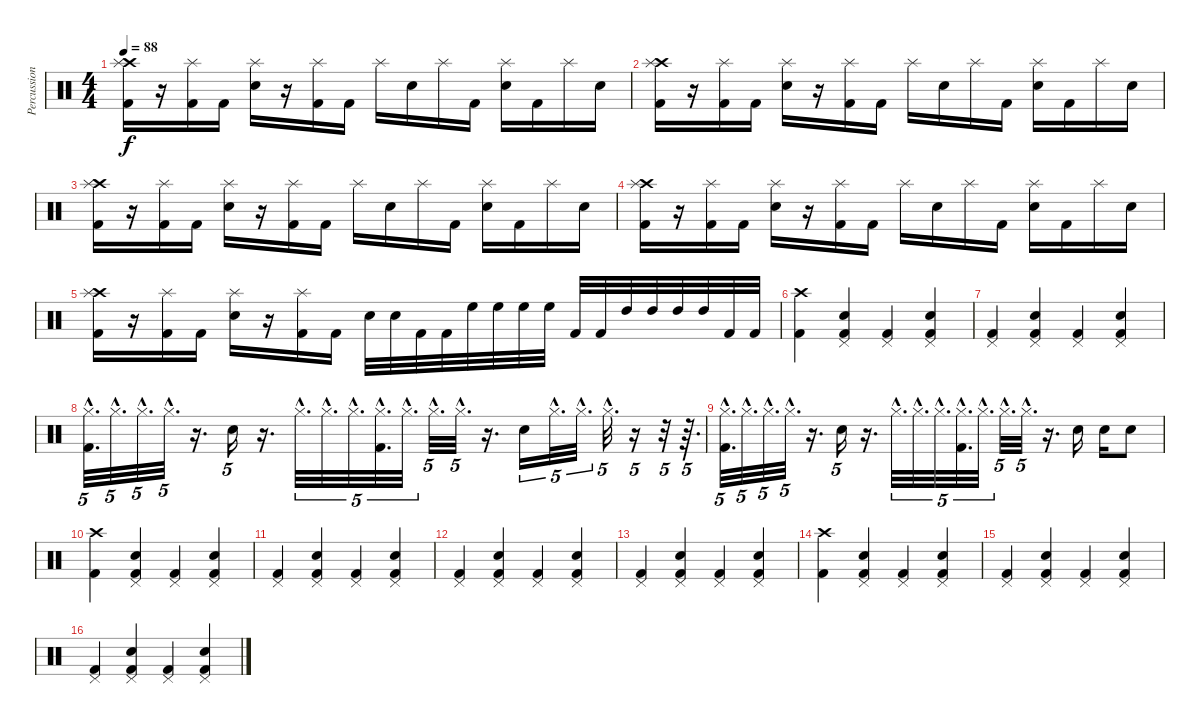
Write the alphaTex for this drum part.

\track ("Percussion" "Percussion") {instrument percussion}
\staff {score}
\articulation defaults
\ts (4 4)
\tempo 88
\clef neutral
\ks c
("Crash high (hit)" "Splash (hit)" "Kick (hit) 2").16{dy f} r.16 ("Splash (hit)" "Kick (hit) 2").16 "Kick (hit) 2".16 ("Splash (hit)" "Electric Snare (hit)").16 r.16 ("Splash (hit)" "Kick (hit) 2").16 "Kick (hit) 2".16 "Splash (hit)".16 "Electric Snare (hit)".16 "Splash (hit)".16 "Kick (hit) 2".16 ("Splash (hit)" "Electric Snare (hit)").16 "Kick (hit) 2".16 "Splash (hit)".16 "Electric Snare (hit)".16 |
("Crash high (hit)" "Splash (hit)" "Kick (hit) 2").16 r.16 ("Splash (hit)" "Kick (hit) 2").16 "Kick (hit) 2".16 ("Splash (hit)" "Electric Snare (hit)").16 r.16 ("Splash (hit)" "Kick (hit) 2").16 "Kick (hit) 2".16 "Splash (hit)".16 "Electric Snare (hit)".16 "Splash (hit)".16 "Kick (hit) 2".16 ("Splash (hit)" "Electric Snare (hit)").16 "Kick (hit) 2".16 "Splash (hit)".16 "Electric Snare (hit)".16 |
("Crash high (hit)" "Splash (hit)" "Kick (hit) 2").16 r.16 ("Splash (hit)" "Kick (hit) 2").16 "Kick (hit) 2".16 ("Splash (hit)" "Electric Snare (hit)").16 r.16 ("Splash (hit)" "Kick (hit) 2").16 "Kick (hit) 2".16 "Splash (hit)".16 "Electric Snare (hit)".16 "Splash (hit)".16 "Kick (hit) 2".16 ("Splash (hit)" "Electric Snare (hit)").16 "Kick (hit) 2".16 "Splash (hit)".16 "Electric Snare (hit)".16 |
("Crash high (hit)" "Splash (hit)" "Kick (hit) 2").16 r.16 ("Splash (hit)" "Kick (hit) 2").16 "Kick (hit) 2".16 ("Splash (hit)" "Electric Snare (hit)").16 r.16 ("Splash (hit)" "Kick (hit) 2").16 "Kick (hit) 2".16 "Splash (hit)".16 "Electric Snare (hit)".16 "Splash (hit)".16 "Kick (hit) 2".16 ("Splash (hit)" "Electric Snare (hit)").16 "Kick (hit) 2".16 "Splash (hit)".16 "Electric Snare (hit)".16 |
("Crash high (hit)" "Splash (hit)" "Kick (hit) 2").16 r.16 ("Splash (hit)" "Kick (hit) 2").16 "Kick (hit) 2".16 ("Splash (hit)" "Electric Snare (hit)").16 r.16 ("Splash (hit)" "Kick (hit) 2").16 "Kick (hit) 2".16 "Electric Snare (hit)".32 "Electric Snare (hit)".32 "Kick (hit) 2".32 "Kick (hit) 2".32 "High Floor Tom (hit)".32 "High Floor Tom (hit)".32 "High Floor Tom (hit)".32 "High Floor Tom (hit)".32 "Kick (hit) 2".32 "Kick (hit) 2".32 "High Tom (hit)".32 "High Tom (hit)".32 "High Tom (hit)".32 "High Tom (hit)".32 "Kick (hit) 2".32 "Kick (hit) 2".32 |
("Crash high (hit)" "Kick (hit) 2").4 ("Pedal Hi-Hat (hit)" "Electric Snare (hit)" "Kick (hit) 2").4 ("Pedal Hi-Hat (hit)" "Kick (hit) 2").4 ("Pedal Hi-Hat (hit)" "Electric Snare (hit)" "Kick (hit) 2").4 |
("Pedal Hi-Hat (hit)" "Kick (hit) 2").4 ("Pedal Hi-Hat (hit)" "Electric Snare (hit)" "Kick (hit) 2").4 ("Pedal Hi-Hat (hit)" "Kick (hit) 2").4 ("Pedal Hi-Hat (hit)" "Electric Snare (hit)" "Kick (hit) 2").4 |
("Hi-Hat (closed)"{hac} "Kick (hit) 2"{hac}).32{d tu (5 4)} "Hi-Hat (closed)"{hac}.32{d tu (5 4)} "Hi-Hat (closed)"{hac}.32{d tu (5 4)} "Hi-Hat (closed)"{hac}.32{d tu (5 4)} r.16{d} "Electric Snare (hit)".16{tu (5 4)} r.16{d} "Hi-Hat (closed)"{hac}.32{d tu (5 4)} "Hi-Hat (closed)"{hac}.32{d tu (5 4)} "Hi-Hat (closed)"{hac}.32{d tu (5 4)} ("Hi-Hat (closed)"{hac} "Kick (hit) 2"{hac}).32{d tu (5 4)} "Hi-Hat (closed)"{hac}.32{d tu (5 4)} "Hi-Hat (closed)"{hac}.32{d tu (5 4)} "Hi-Hat (closed)"{hac}.32{d tu (5 4)} r.16{d} "Electric Snare (hit)".16{tu (5 4)} "Hi-Hat (closed)"{hac}.32{d tu (5 4)} "Hi-Hat (closed)"{hac}.32{d tu (5 4)} "Hi-Hat (closed)"{hac}.32{d tu (5 4)} r.16{tu (5 4)} r.32{tu (5 4)} r.64{d tu (5 4)} |
("Hi-Hat (closed)"{hac} "Kick (hit) 2"{hac}).32{d tu (5 4)} "Hi-Hat (closed)"{hac}.32{d tu (5 4)} "Hi-Hat (closed)"{hac}.32{d tu (5 4)} "Hi-Hat (closed)"{hac}.32{d tu (5 4)} r.16{d} "Electric Snare (hit)".16{tu (5 4)} r.16{d} "Hi-Hat (closed)"{hac}.32{d tu (5 4)} "Hi-Hat (closed)"{hac}.32{d tu (5 4)} "Hi-Hat (closed)"{hac}.32{d tu (5 4)} ("Hi-Hat (closed)"{hac} "Kick (hit) 2"{hac}).32{d tu (5 4)} "Hi-Hat (closed)"{hac}.32{d tu (5 4)} "Hi-Hat (closed)"{hac}.32{d tu (5 4)} "Hi-Hat (closed)"{hac}.32{d tu (5 4)} r.16{d} "Electric Snare (hit)".16 "Electric Snare (hit)".16 "Electric Snare (hit)".8 |
("Crash high (hit)" "Kick (hit) 2").4 ("Pedal Hi-Hat (hit)" "Electric Snare (hit)" "Kick (hit) 2").4 ("Pedal Hi-Hat (hit)" "Kick (hit) 2").4 ("Pedal Hi-Hat (hit)" "Electric Snare (hit)" "Kick (hit) 2").4 |
("Pedal Hi-Hat (hit)" "Kick (hit) 2").4 ("Pedal Hi-Hat (hit)" "Electric Snare (hit)" "Kick (hit) 2").4 ("Pedal Hi-Hat (hit)" "Kick (hit) 2").4 ("Pedal Hi-Hat (hit)" "Electric Snare (hit)" "Kick (hit) 2").4 |
("Pedal Hi-Hat (hit)" "Kick (hit) 2").4 ("Pedal Hi-Hat (hit)" "Electric Snare (hit)" "Kick (hit) 2").4 ("Pedal Hi-Hat (hit)" "Kick (hit) 2").4 ("Pedal Hi-Hat (hit)" "Electric Snare (hit)" "Kick (hit) 2").4 |
("Pedal Hi-Hat (hit)" "Kick (hit) 2").4 ("Pedal Hi-Hat (hit)" "Electric Snare (hit)" "Kick (hit) 2").4 ("Pedal Hi-Hat (hit)" "Kick (hit) 2").4 ("Pedal Hi-Hat (hit)" "Electric Snare (hit)" "Kick (hit) 2").4 |
("Crash high (hit)" "Kick (hit) 2").4 ("Pedal Hi-Hat (hit)" "Electric Snare (hit)" "Kick (hit) 2").4 ("Pedal Hi-Hat (hit)" "Kick (hit) 2").4 ("Pedal Hi-Hat (hit)" "Electric Snare (hit)" "Kick (hit) 2").4 |
("Pedal Hi-Hat (hit)" "Kick (hit) 2").4 ("Pedal Hi-Hat (hit)" "Electric Snare (hit)" "Kick (hit) 2").4 ("Pedal Hi-Hat (hit)" "Kick (hit) 2").4 ("Pedal Hi-Hat (hit)" "Electric Snare (hit)" "Kick (hit) 2").4 |
("Pedal Hi-Hat (hit)" "Kick (hit) 2").4 ("Pedal Hi-Hat (hit)" "Electric Snare (hit)" "Kick (hit) 2").4 ("Pedal Hi-Hat (hit)" "Kick (hit) 2").4 ("Pedal Hi-Hat (hit)" "Electric Snare (hit)" "Kick (hit) 2").4
